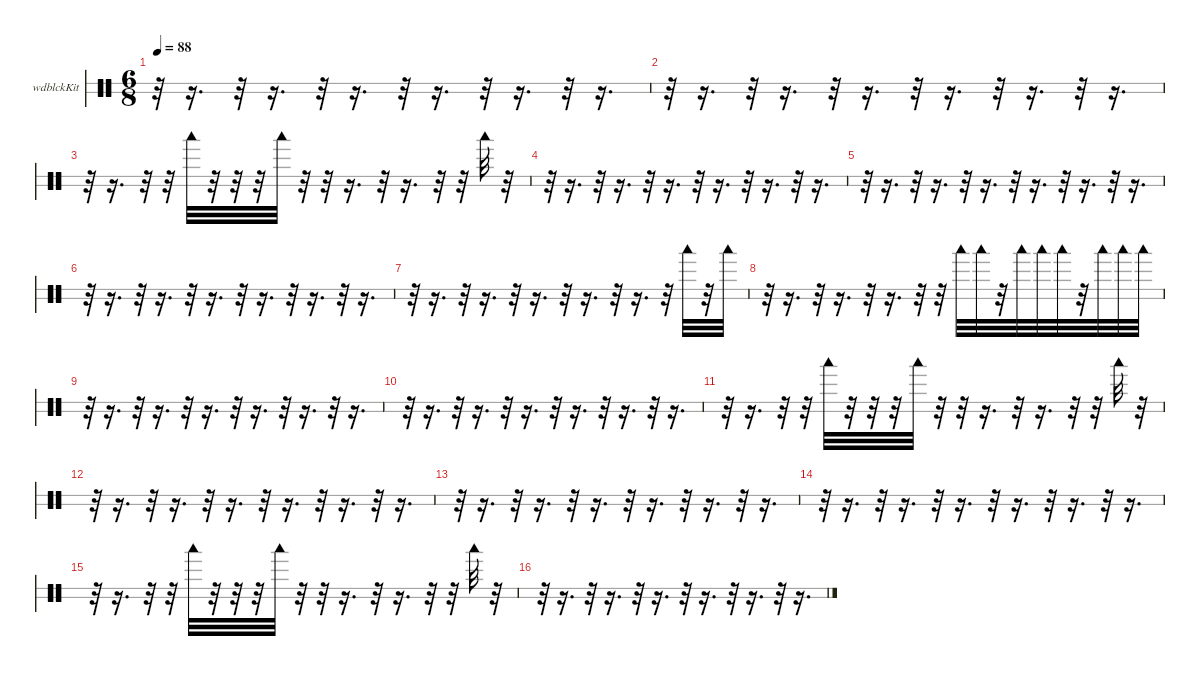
\hideDynamics
\bracketExtendMode nobrackets
\firstSystemTrackNameOrientation horizontal
\otherSystemsTrackNameOrientation horizontal
\track ("Woodblock" "wdblckKit") {instrument percussion}
\staff {score 2}
\articulation defaults
\ts (6 8)
\tempo 88
\clef neutral
\ks c
r.32{dy f} r.16{d} r.32 r.16{d} r.32 r.16{d} r.32 r.16{d} r.32 r.16{d} r.32 r.16{d} |
r.32 r.16{d} r.32 r.16{d} r.32 r.16{d} r.32 r.16{d} r.32 r.16{d} r.32 r.16{d} |
r.32 r.16{d} r.32 r.32 "Woodblock low (hit)".32 r.32 r.32 r.32 "Woodblock low (hit)".32 r.32 r.32 r.16{d} r.32 r.16{d} r.32 r.32 "Woodblock low (hit)".32{dy mf} r.32 |
r.32 r.16{d} r.32 r.16{d} r.32 r.16{d} r.32 r.16{d} r.32 r.16{d} r.32 r.16{d} |
r.32 r.16{d} r.32 r.16{d} r.32 r.16{d} r.32 r.16{d} r.32 r.16{d} r.32 r.16{d} |
r.32 r.16{d} r.32 r.16{d} r.32 r.16{d} r.32 r.16{d} r.32 r.16{d} r.32 r.16{d} |
r.32 r.16{d} r.32 r.16{d} r.32 r.16{d} r.32 r.16{d} r.32 r.16{d} r.32 "Woodblock low (hit)".32 r.32 "Woodblock low (hit)".32{dy f} |
r.32 r.16{d} r.32 r.16{d} r.32 r.16{d} r.32 r.32 "Woodblock low (hit)".32{dy p} "Woodblock low (hit)".32{dy mp} r.32 "Woodblock low (hit)".32 "Woodblock low (hit)".32{dy mf} "Woodblock low (hit)".32{dy f} r.32 "Woodblock low (hit)".32 "Woodblock low (hit)".32{dy ff} "Woodblock low (hit)".32 |
r.32 r.16{d} r.32 r.16{d} r.32 r.16{d} r.32 r.16{d} r.32 r.16{d} r.32 r.16{d} |
r.32 r.16{d} r.32 r.16{d} r.32 r.16{d} r.32 r.16{d} r.32 r.16{d} r.32 r.16{d} |
r.32 r.16{d} r.32 r.32 "Woodblock low (hit)".32{dy f} r.32 r.32 r.32 "Woodblock low (hit)".32 r.32 r.32 r.16{d} r.32 r.16{d} r.32 r.32 "Woodblock low (hit)".32{dy mf} r.32 |
r.32 r.16{d} r.32 r.16{d} r.32 r.16{d} r.32 r.16{d} r.32 r.16{d} r.32 r.16{d} |
r.32 r.16{d} r.32 r.16{d} r.32 r.16{d} r.32 r.16{d} r.32 r.16{d} r.32 r.16{d} |
r.32 r.16{d} r.32 r.16{d} r.32 r.16{d} r.32 r.16{d} r.32 r.16{d} r.32 r.16{d} |
r.32 r.16{d} r.32 r.32 "Woodblock low (hit)".32{dy f} r.32 r.32 r.32 "Woodblock low (hit)".32 r.32 r.32 r.16{d} r.32 r.16{d} r.32 r.32 "Woodblock low (hit)".32{dy mf} r.32 |
r.32 r.16{d} r.32 r.16{d} r.32 r.16{d} r.32 r.16{d} r.32 r.16{d} r.32 r.16{d}
